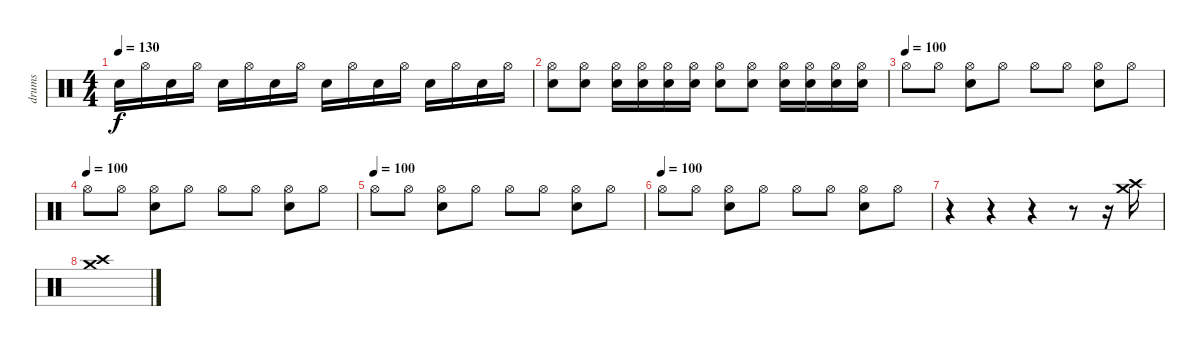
\track ("drums" "drums") {instrument percussion}
\staff {score}
\articulation defaults
\ts (4 4)
\tempo 130
\clef neutral
\ks c "Snare (hit) 2".16{dy f} "Hi-Hat (open)".16 "Snare (hit) 2".16 "Hi-Hat (open)".16 "Snare (hit) 2".16 "Hi-Hat (open)".16 "Snare (hit) 2".16 "Hi-Hat (open)".16 "Snare (hit) 2".16 "Hi-Hat (open)".16 "Snare (hit) 2".16 "Hi-Hat (open)".16 "Snare (hit) 2".16 "Hi-Hat (open)".16 "Snare (hit) 2".16 "Hi-Hat (open)".16
|
("Hi-Hat (open)" "Snare (hit) 2").8 ("Hi-Hat (open)" "Snare (hit) 2").8 ("Hi-Hat (open)" "Snare (hit) 2").16 ("Hi-Hat (open)" "Snare (hit) 2").16 ("Hi-Hat (open)" "Snare (hit) 2").16 ("Hi-Hat (open)" "Snare (hit) 2").16 ("Hi-Hat (open)" "Snare (hit) 2").8 ("Hi-Hat (open)" "Snare (hit) 2").8 ("Hi-Hat (open)" "Snare (hit) 2").16 ("Hi-Hat (open)" "Snare (hit) 2").16 ("Hi-Hat (open)" "Snare (hit) 2").16 ("Hi-Hat (open)" "Snare (hit) 2").16 |
\tempo (100)
"Hi-Hat (open)".8 "Hi-Hat (open)".8 ("Snare (hit) 2" "Hi-Hat (open)").8 "Hi-Hat (open)".8 "Hi-Hat (open)".8 "Hi-Hat (open)".8 ("Snare (hit) 2" "Hi-Hat (open)").8 "Hi-Hat (open)".8 |
\tempo (100)
"Hi-Hat (open)".8 "Hi-Hat (open)".8 ("Snare (hit) 2" "Hi-Hat (open)").8 "Hi-Hat (open)".8 "Hi-Hat (open)".8 "Hi-Hat (open)".8 ("Snare (hit) 2" "Hi-Hat (open)").8 "Hi-Hat (open)".8 |
\tempo (100)
"Hi-Hat (open)".8 "Hi-Hat (open)".8 ("Snare (hit) 2" "Hi-Hat (open)").8 "Hi-Hat (open)".8 "Hi-Hat (open)".8 "Hi-Hat (open)".8 ("Snare (hit) 2" "Hi-Hat (open)").8 "Hi-Hat (open)".8 |
\tempo (100)
"Hi-Hat (open)".8 "Hi-Hat (open)".8 ("Snare (hit) 2" "Hi-Hat (open)").8 "Hi-Hat (open)".8 "Hi-Hat (open)".8 "Hi-Hat (open)".8 ("Snare (hit) 2" "Hi-Hat (open)").8 "Hi-Hat (open)".8 |
r.4 r.4 r.4 r.8 r.16 ("Crash high (hit)" "Crash medium (hit)").16 |
("Crash high (hit)" "Crash medium (hit)").1
